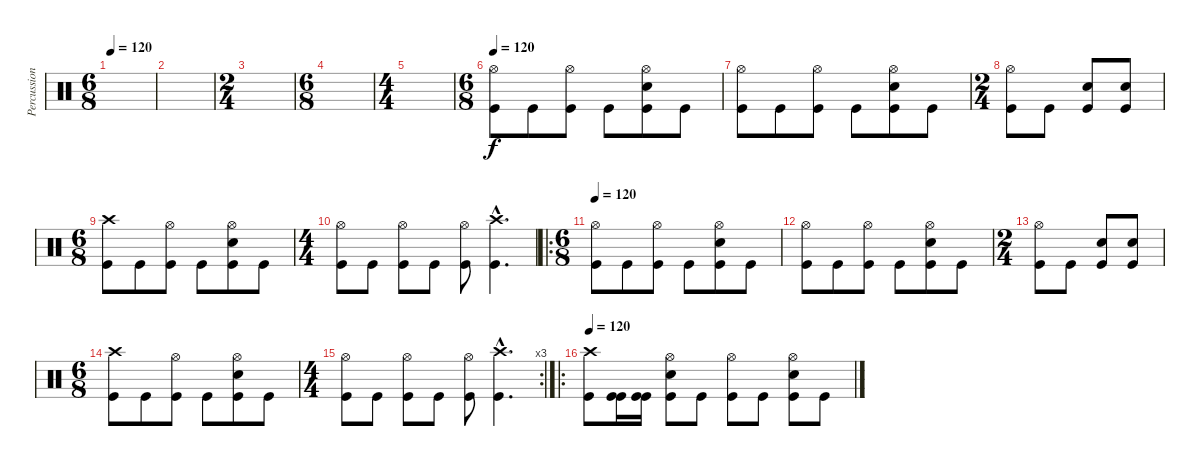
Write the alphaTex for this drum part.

\track ("Percussion" "Percussion") {instrument percussion}
\staff {score}
\articulation defaults
\ts (6 8)
\tempo 120
\clef neutral
\ks c
|
|
\ts (2 4)
|
\ts (6 8)
|
\ts (4 4)
|
\ts (6 8)
\tempo 120
("Hi-Hat (open)" "Kick (hit)").8{dy f} "Kick (hit)".8 ("Hi-Hat (open)" "Kick (hit)").8 "Kick (hit)".8 ("Hi-Hat (open)" "Snare (hit) 2" "Kick (hit)").8 "Kick (hit)".8 |
("Hi-Hat (open)" "Kick (hit)").8 "Kick (hit)".8 ("Hi-Hat (open)" "Kick (hit)").8 "Kick (hit)".8 ("Hi-Hat (open)" "Snare (hit) 2" "Kick (hit)").8 "Kick (hit)".8 |
\ts (2 4)
("Hi-Hat (open)" "Kick (hit)").8 "Kick (hit)".8 ("Snare (hit) 2" "Kick (hit)").8 ("Snare (hit) 2" "Kick (hit)").8 |
\ts (6 8)
("Crash high (hit)" "Kick (hit)").8 "Kick (hit)".8 ("Hi-Hat (open)" "Kick (hit)").8 "Kick (hit)".8 ("Hi-Hat (open)" "Snare (hit) 2" "Kick (hit)").8 "Kick (hit)".8 |
\ts (4 4)
("Hi-Hat (open)" "Kick (hit)").8 "Kick (hit)".8 ("Hi-Hat (open)" "Kick (hit)").8 "Kick (hit)".8 ("Hi-Hat (open)" "Kick (hit)").8 ("Crash high (hit)"{hac} "Kick (hit)"{hac}).4{d} |
\ro
\ts (6 8)
\tempo 120
("Hi-Hat (open)" "Kick (hit)").8 "Kick (hit)".8 ("Hi-Hat (open)" "Kick (hit)").8 "Kick (hit)".8 ("Hi-Hat (open)" "Snare (hit) 2" "Kick (hit)").8 "Kick (hit)".8 |
("Hi-Hat (open)" "Kick (hit)").8 "Kick (hit)".8 ("Hi-Hat (open)" "Kick (hit)").8 "Kick (hit)".8 ("Hi-Hat (open)" "Snare (hit) 2" "Kick (hit)").8 "Kick (hit)".8 |
\ts (2 4)
("Hi-Hat (open)" "Kick (hit)").8 "Kick (hit)".8 ("Snare (hit) 2" "Kick (hit)").8 ("Snare (hit) 2" "Kick (hit)").8 |
\ts (6 8)
("Crash high (hit)" "Kick (hit)").8 "Kick (hit)".8 ("Hi-Hat (open)" "Kick (hit)").8 "Kick (hit)".8 ("Hi-Hat (open)" "Snare (hit) 2" "Kick (hit)").8 "Kick (hit)".8 |
\rc 3
\ts (4 4)
("Hi-Hat (open)" "Kick (hit)").8 "Kick (hit)".8 ("Hi-Hat (open)" "Kick (hit)").8 "Kick (hit)".8 ("Hi-Hat (open)" "Kick (hit)").8 ("Crash high (hit)"{hac} "Kick (hit)"{hac}).4{d} |
\ro
\tempo 120
("Crash high (hit)" "Kick (hit)").8 ("Kick (hit)" "Kick (hit)").16 ("Kick (hit)" "Kick (hit)").16 ("Hi-Hat (open)" "Snare (hit) 2" "Kick (hit)").8 "Kick (hit)".8 ("Hi-Hat (open)" "Kick (hit)").8 "Kick (hit)".8 ("Hi-Hat (open)" "Snare (hit) 2" "Kick (hit)").8 "Kick (hit)".8
